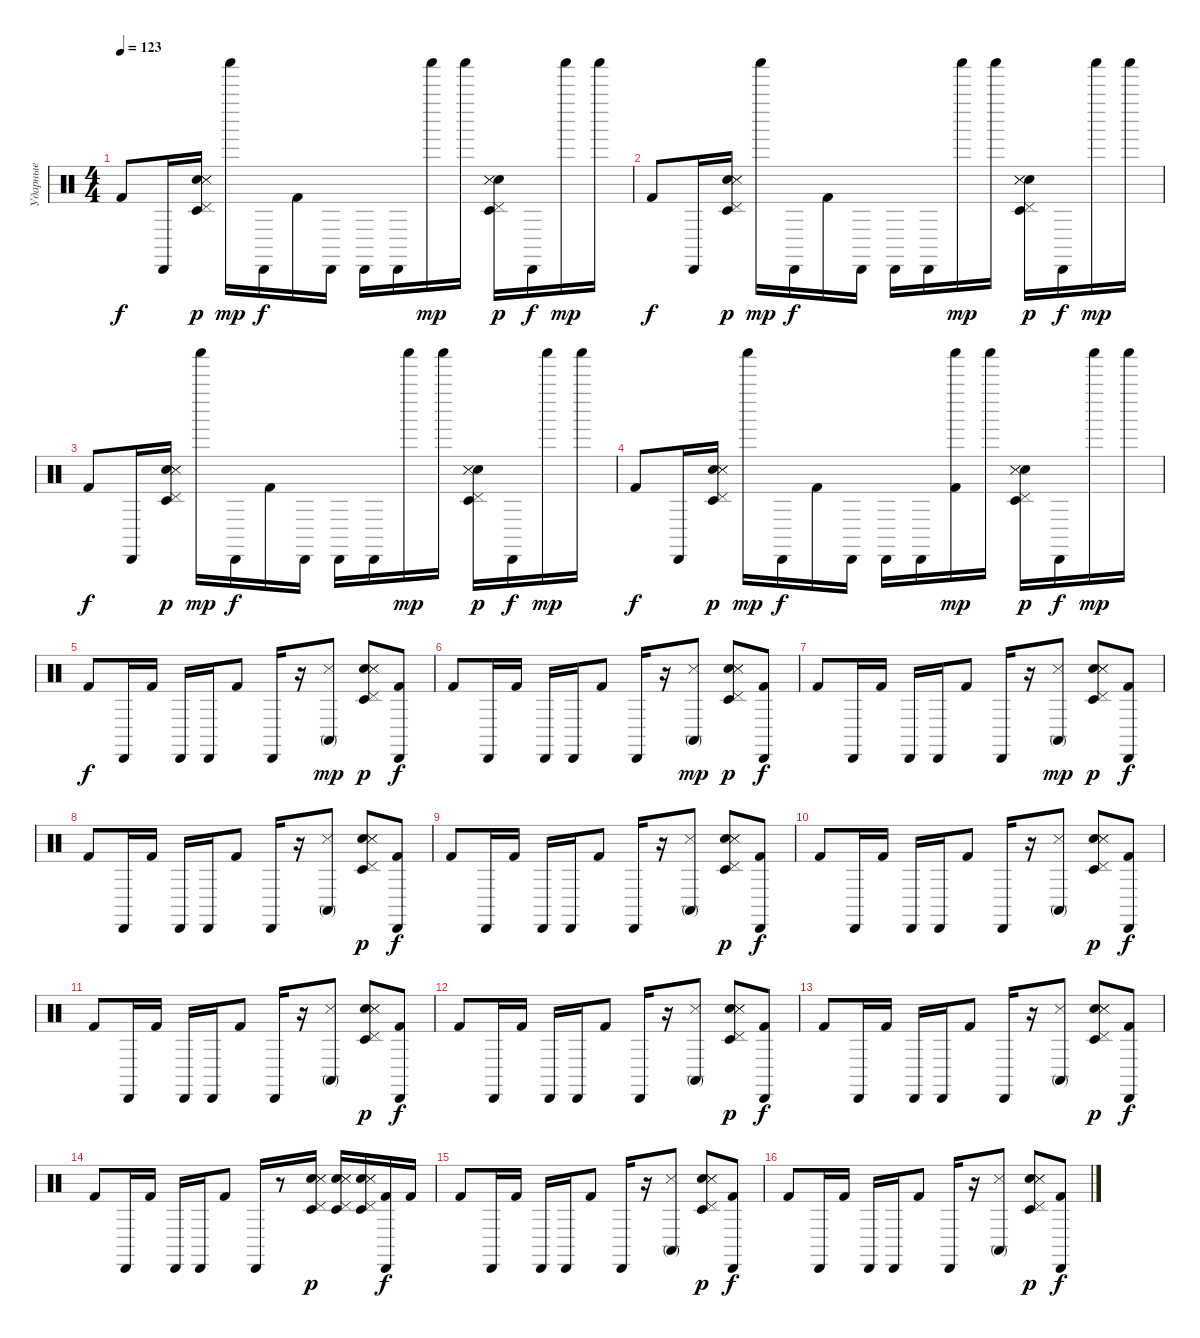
\track ("Ударные" "Ударные") {instrument percussion}
\staff {score}
\articulation defaults
\ts (4 4)
\tempo 123
\clef neutral
\ks c "Kick (hit) 2".8{dy f} "Cabasa (hit)".16
("Hand Clap (hit)" "Metronome (hit)" "Snare (side stick) 3" "Timbale low (hit)" "Pedal Hi-Hat (hit)").16{dy p} "Shaker (hit)".16{dy mp} "Cabasa (hit)".16{dy f} "Kick (hit) 2".16 "Cabasa (hit)".16 "Cabasa (hit)".16 "Cabasa (hit)".16 "Shaker (hit)".16{dy mp} "Shaker (hit)".16 ("Hand Clap (hit)" "Metronome (hit)" "Snare (side stick) 3" "Timbale low (hit)" "Pedal Hi-Hat (hit)").16{dy p} "Cabasa (hit)".16{dy f} "Shaker (hit)".16{dy mp} "Shaker (hit)".16 |
"Kick (hit) 2".8{dy f} "Cabasa (hit)".16 ("Hand Clap (hit)" "Metronome (hit)" "Snare (side stick) 3" "Timbale low (hit)" "Pedal Hi-Hat (hit)").16{dy p} "Shaker (hit)".16{dy mp} "Cabasa (hit)".16{dy f} "Kick (hit) 2".16 "Cabasa (hit)".16 "Cabasa (hit)".16 "Cabasa (hit)".16 "Shaker (hit)".16{dy mp} "Shaker (hit)".16 ("Hand Clap (hit)" "Metronome (hit)" "Snare (side stick) 3" "Timbale low (hit)" "Pedal Hi-Hat (hit)").16{dy p} "Cabasa (hit)".16{dy f} "Shaker (hit)".16{dy mp} "Shaker (hit)".16 |
"Kick (hit) 2".8{dy f} "Cabasa (hit)".16 ("Hand Clap (hit)" "Metronome (hit)" "Snare (side stick) 3" "Timbale low (hit)" "Pedal Hi-Hat (hit)").16{dy p} "Shaker (hit)".16{dy mp} "Cabasa (hit)".16{dy f} "Kick (hit) 2".16 "Cabasa (hit)".16 "Cabasa (hit)".16 "Cabasa (hit)".16 "Shaker (hit)".16{dy mp} "Shaker (hit)".16 ("Hand Clap (hit)" "Metronome (hit)" "Snare (side stick) 3" "Timbale low (hit)" "Pedal Hi-Hat (hit)").16{dy p} "Cabasa (hit)".16{dy f} "Shaker (hit)".16{dy mp} "Shaker (hit)".16 |
"Kick (hit) 2".8{dy f} "Cabasa (hit)".16 ("Hand Clap (hit)" "Metronome (hit)" "Snare (side stick) 3" "Timbale low (hit)" "Pedal Hi-Hat (hit)").16{dy p} "Shaker (hit)".16{dy mp} "Cabasa (hit)".16{dy f} "Kick (hit) 2".16 "Cabasa (hit)".16 "Cabasa (hit)".16 "Cabasa (hit)".16 ("Shaker (hit)" "Kick (hit) 2").16{dy mp} "Shaker (hit)".16 ("Hand Clap (hit)" "Metronome (hit)" "Snare (side stick) 3" "Timbale low (hit)" "Pedal Hi-Hat (hit)").16{dy p} "Cabasa (hit)".16{dy f} "Shaker (hit)".16{dy mp} "Shaker (hit)".16 |
"Kick (hit) 2".8{dy f} "Cabasa (hit)".16 "Kick (hit) 2".16 "Cabasa (hit)".16 "Cabasa (hit)".16 "Kick (hit) 2".8 "Cabasa (hit)".16 r.16 ("Conga high (mute)" "Metronome (hit)").8{dy mp} ("Hand Clap (hit)" "Metronome (hit)" "Snare (side stick) 3" "Timbale low (hit)" "Pedal Hi-Hat (hit)").8{dy p} ("Cabasa (hit)" "Kick (hit) 2").8{dy f} |
"Kick (hit) 2".8 "Cabasa (hit)".16 "Kick (hit) 2".16 "Cabasa (hit)".16 "Cabasa (hit)".16 "Kick (hit) 2".8 "Cabasa (hit)".16 r.16 ("Conga high (mute)" "Metronome (hit)").8{dy mp} ("Hand Clap (hit)" "Metronome (hit)" "Snare (side stick) 3" "Timbale low (hit)" "Pedal Hi-Hat (hit)").8{dy p} ("Cabasa (hit)" "Kick (hit) 2").8{dy f} |
"Kick (hit) 2".8 "Cabasa (hit)".16 "Kick (hit) 2".16 "Cabasa (hit)".16 "Cabasa (hit)".16 "Kick (hit) 2".8 "Cabasa (hit)".16 r.16 ("Conga high (mute)" "Metronome (hit)").8{dy mp} ("Hand Clap (hit)" "Metronome (hit)" "Snare (side stick) 3" "Timbale low (hit)" "Pedal Hi-Hat (hit)").8{dy p} ("Cabasa (hit)" "Kick (hit) 2").8{dy f} |
"Kick (hit) 2".8 "Cabasa (hit)".16 "Kick (hit) 2".16 "Cabasa (hit)".16 "Cabasa (hit)".16 "Kick (hit) 2".8 "Cabasa (hit)".16 r.16 ("Conga high (mute)" "Metronome (hit)").8 ("Hand Clap (hit)" "Metronome (hit)" "Snare (side stick) 3" "Timbale low (hit)" "Pedal Hi-Hat (hit)").8{dy p} ("Cabasa (hit)" "Kick (hit) 2").8{dy f} |
"Kick (hit) 2".8 "Cabasa (hit)".16 "Kick (hit) 2".16 "Cabasa (hit)".16 "Cabasa (hit)".16 "Kick (hit) 2".8 "Cabasa (hit)".16 r.16 ("Conga high (mute)" "Metronome (hit)").8 ("Hand Clap (hit)" "Metronome (hit)" "Snare (side stick) 3" "Timbale low (hit)" "Pedal Hi-Hat (hit)").8{dy p} ("Cabasa (hit)" "Kick (hit) 2").8{dy f} |
"Kick (hit) 2".8 "Cabasa (hit)".16 "Kick (hit) 2".16 "Cabasa (hit)".16 "Cabasa (hit)".16 "Kick (hit) 2".8 "Cabasa (hit)".16 r.16 ("Conga high (mute)" "Metronome (hit)").8 ("Hand Clap (hit)" "Metronome (hit)" "Snare (side stick) 3" "Timbale low (hit)" "Pedal Hi-Hat (hit)").8{dy p} ("Cabasa (hit)" "Kick (hit) 2").8{dy f} |
"Kick (hit) 2".8 "Cabasa (hit)".16 "Kick (hit) 2".16 "Cabasa (hit)".16 "Cabasa (hit)".16 "Kick (hit) 2".8 "Cabasa (hit)".16 r.16 ("Conga high (mute)" "Metronome (hit)").8 ("Hand Clap (hit)" "Metronome (hit)" "Snare (side stick) 3" "Timbale low (hit)" "Pedal Hi-Hat (hit)").8{dy p} ("Cabasa (hit)" "Kick (hit) 2").8{dy f} |
"Kick (hit) 2".8 "Cabasa (hit)".16 "Kick (hit) 2".16 "Cabasa (hit)".16 "Cabasa (hit)".16 "Kick (hit) 2".8 "Cabasa (hit)".16 r.16 ("Conga high (mute)" "Metronome (hit)").8 ("Hand Clap (hit)" "Metronome (hit)" "Snare (side stick) 3" "Timbale low (hit)" "Pedal Hi-Hat (hit)").8{dy p} ("Cabasa (hit)" "Kick (hit) 2").8{dy f} |
"Kick (hit) 2".8 "Cabasa (hit)".16 "Kick (hit) 2".16 "Cabasa (hit)".16 "Cabasa (hit)".16 "Kick (hit) 2".8 "Cabasa (hit)".16 r.16 ("Conga high (mute)" "Metronome (hit)").8 ("Hand Clap (hit)" "Metronome (hit)" "Snare (side stick) 3" "Timbale low (hit)" "Pedal Hi-Hat (hit)").8{dy p} ("Cabasa (hit)" "Kick (hit) 2").8{dy f} |
"Kick (hit) 2".8 "Cabasa (hit)".16 "Kick (hit) 2".16 "Cabasa (hit)".16 "Cabasa (hit)".16 "Kick (hit) 2".8 "Cabasa (hit)".16 r.8 ("Hand Clap (hit)" "Metronome (hit)" "Snare (side stick) 3" "Timbale low (hit)" "Pedal Hi-Hat (hit)").16{dy p} ("Hand Clap (hit)" "Metronome (hit)" "Snare (side stick) 3" "Timbale low (hit)" "Pedal Hi-Hat (hit)").16 ("Hand Clap (hit)" "Metronome (hit)" "Snare (side stick) 3" "Timbale low (hit)" "Pedal Hi-Hat (hit)").16 ("Cabasa (hit)" "Kick (hit) 2").16{dy f} "Kick (hit) 2".16 |
"Kick (hit) 2".8 "Cabasa (hit)".16 "Kick (hit) 2".16 "Cabasa (hit)".16 "Cabasa (hit)".16 "Kick (hit) 2".8 "Cabasa (hit)".16 r.16 ("Conga high (mute)" "Metronome (hit)").8 ("Hand Clap (hit)" "Metronome (hit)" "Snare (side stick) 3" "Timbale low (hit)" "Pedal Hi-Hat (hit)").8{dy p} ("Cabasa (hit)" "Kick (hit) 2").8{dy f} |
"Kick (hit) 2".8 "Cabasa (hit)".16 "Kick (hit) 2".16 "Cabasa (hit)".16 "Cabasa (hit)".16 "Kick (hit) 2".8 "Cabasa (hit)".16 r.16 ("Conga high (mute)" "Metronome (hit)").8 ("Hand Clap (hit)" "Metronome (hit)" "Snare (side stick) 3" "Timbale low (hit)" "Pedal Hi-Hat (hit)").8{dy p} ("Cabasa (hit)" "Kick (hit) 2").8{dy f}
